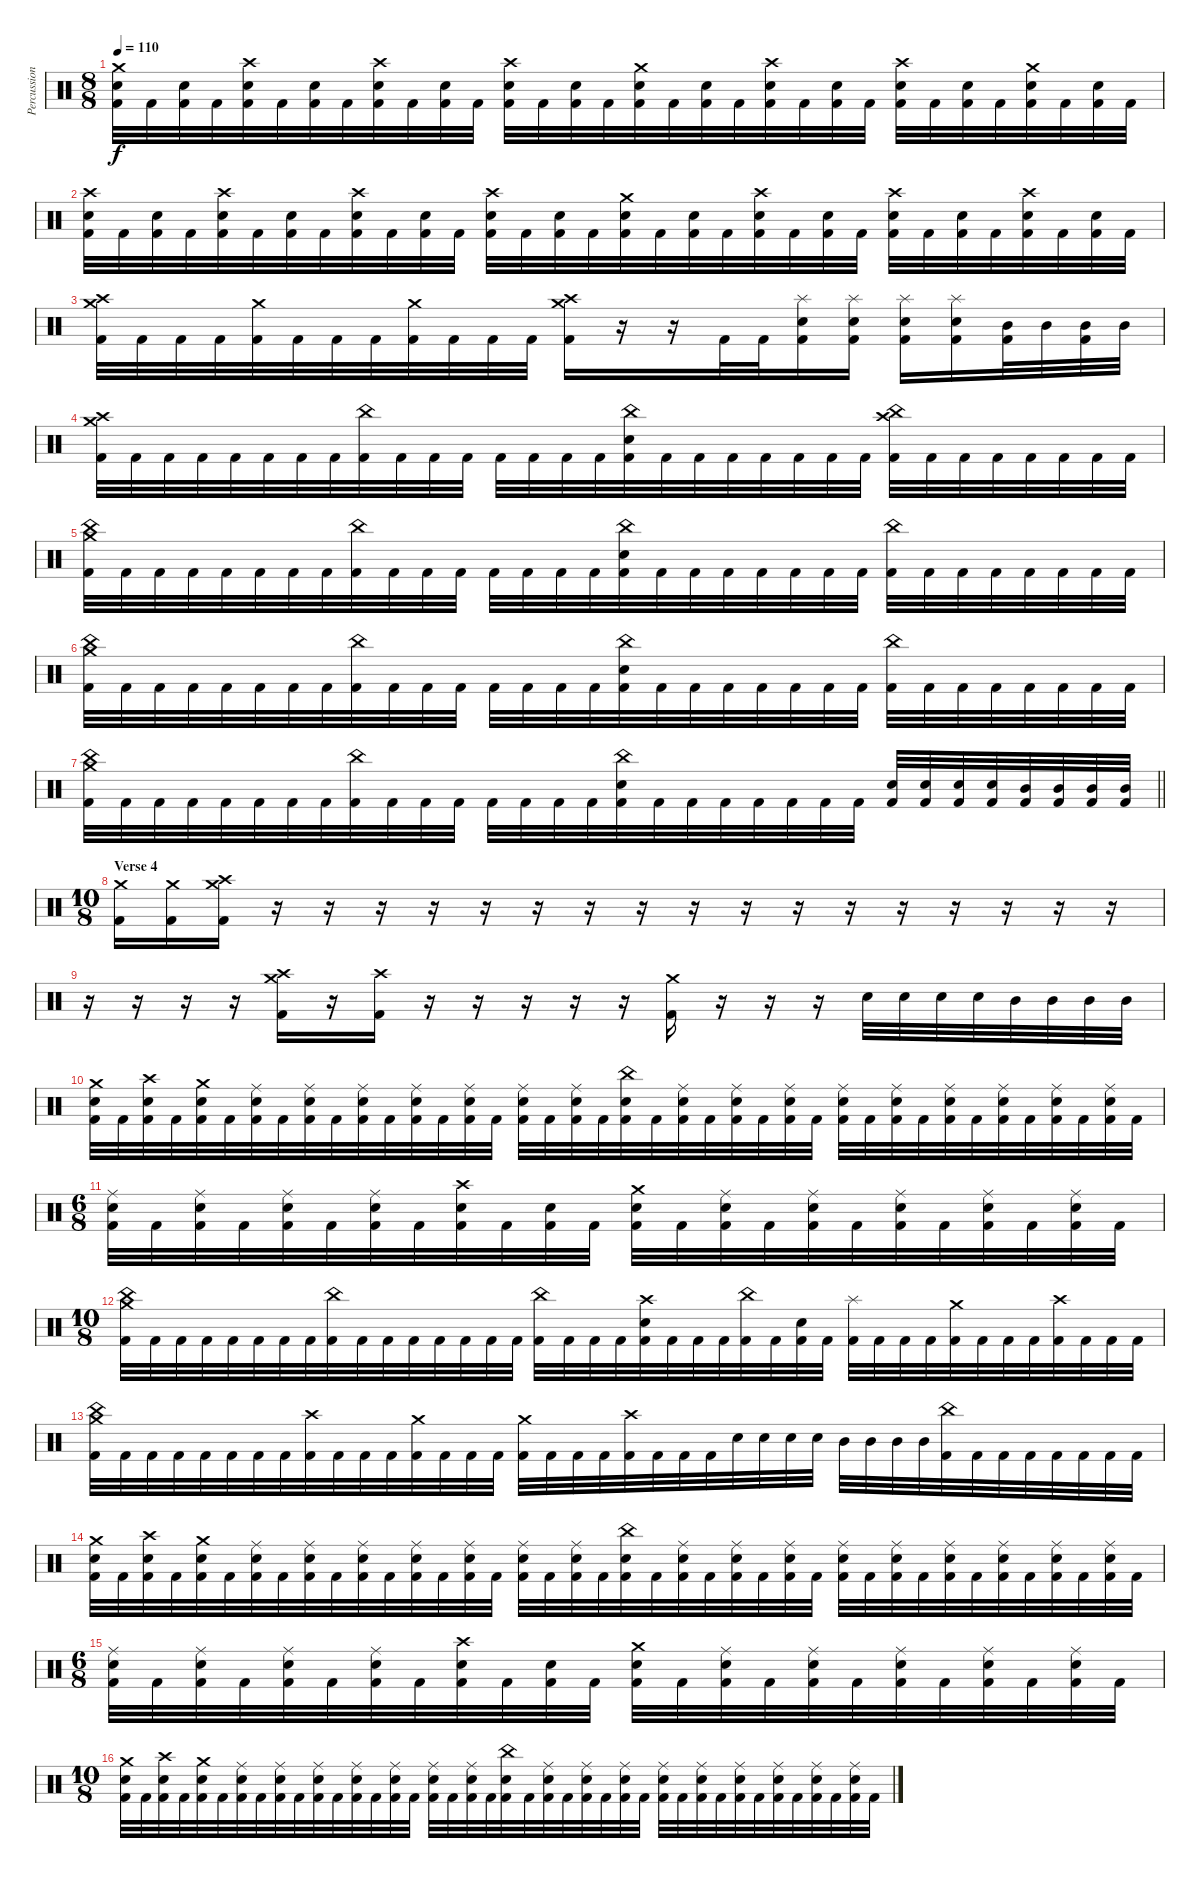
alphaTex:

\track ("Percussion" "Percussion") {instrument percussion}
\staff {score}
\articulation defaults
\ts (8 8)
\tempo 110
\clef neutral
\ks c
("Crash medium (hit)" "Snare (hit) 2" "Kick (hit) 2").32{dy f} "Kick (hit) 2".32 ("Snare (hit) 2" "Kick (hit) 2").32 "Kick (hit) 2".32 ("Crash high (hit)" "Snare (hit) 2" "Kick (hit) 2").32 "Kick (hit) 2".32 ("Snare (hit) 2" "Kick (hit) 2").32 "Kick (hit) 2".32 ("Crash high (hit)" "Snare (hit) 2" "Kick (hit) 2").32 "Kick (hit) 2".32 ("Snare (hit) 2" "Kick (hit) 2").32 "Kick (hit) 2".32 ("Crash high (hit)" "Snare (hit) 2" "Kick (hit) 2").32 "Kick (hit) 2".32 ("Snare (hit) 2" "Kick (hit) 2").32 "Kick (hit) 2".32 ("Crash medium (hit)" "Snare (hit) 2" "Kick (hit) 2").32 "Kick (hit) 2".32 ("Snare (hit) 2" "Kick (hit) 2").32 "Kick (hit) 2".32 ("Crash high (hit)" "Snare (hit) 2" "Kick (hit) 2").32 "Kick (hit) 2".32 ("Snare (hit) 2" "Kick (hit) 2").32 "Kick (hit) 2".32 ("Crash high (hit)" "Snare (hit) 2" "Kick (hit) 2").32 "Kick (hit) 2".32 ("Snare (hit) 2" "Kick (hit) 2").32 "Kick (hit) 2".32 ("Crash medium (hit)" "Snare (hit) 2" "Kick (hit) 2").32 "Kick (hit) 2".32 ("Snare (hit) 2" "Kick (hit) 2").32 "Kick (hit) 2".32 |
("Crash high (hit)" "Snare (hit) 2" "Kick (hit) 2").32 "Kick (hit) 2".32 ("Snare (hit) 2" "Kick (hit) 2").32 "Kick (hit) 2".32 ("Crash high (hit)" "Snare (hit) 2" "Kick (hit) 2").32 "Kick (hit) 2".32 ("Snare (hit) 2" "Kick (hit) 2").32 "Kick (hit) 2".32 ("Crash high (hit)" "Snare (hit) 2" "Kick (hit) 2").32 "Kick (hit) 2".32 ("Snare (hit) 2" "Kick (hit) 2").32 "Kick (hit) 2".32 ("Crash high (hit)" "Snare (hit) 2" "Kick (hit) 2").32 "Kick (hit) 2".32 ("Snare (hit) 2" "Kick (hit) 2").32 "Kick (hit) 2".32 ("Crash medium (hit)" "Snare (hit) 2" "Kick (hit) 2").32 "Kick (hit) 2".32 ("Snare (hit) 2" "Kick (hit) 2").32 "Kick (hit) 2".32 ("Crash high (hit)" "Snare (hit) 2" "Kick (hit) 2").32 "Kick (hit) 2".32 ("Snare (hit) 2" "Kick (hit) 2").32 "Kick (hit) 2".32 ("Crash high (hit)" "Snare (hit) 2" "Kick (hit) 2").32 "Kick (hit) 2".32 ("Snare (hit) 2" "Kick (hit) 2").32 "Kick (hit) 2".32 ("Crash high (hit)" "Snare (hit) 2" "Kick (hit) 2").32 "Kick (hit) 2".32 ("Snare (hit) 2" "Kick (hit) 2").32 "Kick (hit) 2".32 |
("Crash medium (hit)" "Crash high (hit)" "Kick (hit) 2").32 "Kick (hit) 2".32 "Kick (hit) 2".32 "Kick (hit) 2".32 ("Crash medium (hit)" "Kick (hit) 2").32 "Kick (hit) 2".32 "Kick (hit) 2".32 "Kick (hit) 2".32 ("Crash medium (hit)" "Kick (hit) 2").32 "Kick (hit) 2".32 "Kick (hit) 2".32 "Kick (hit) 2".32 ("Crash medium (hit)" "Crash high (hit)" "Kick (hit) 2").16 r.16{volume 0} r.16 "Kick (hit) 2".32{volume 14} "Kick (hit) 2".32 ("Splash (hit)" "Snare (hit) 2" "Kick (hit) 2").16 ("Splash (hit)" "Snare (hit) 2" "Kick (hit) 2").16 ("Splash (hit)" "Snare (hit) 2" "Kick (hit) 2").16 ("Splash (hit)" "Snare (hit) 2" "Kick (hit) 2").16 ("Mid Tom (hit)" "Kick (hit) 2").32 "Mid Tom (hit)".32 ("Mid Tom (hit)" "Kick (hit) 2").32 "Mid Tom (hit)".32 |
("Crash medium (hit)" "Crash high (hit)" "Kick (hit) 2").32 "Kick (hit) 2".32 "Kick (hit) 2".32 "Kick (hit) 2".32 "Kick (hit) 2".32 "Kick (hit) 2".32 "Kick (hit) 2".32 "Kick (hit) 2".32 ("China (hit)" "Kick (hit) 2").32 "Kick (hit) 2".32 "Kick (hit) 2".32 "Kick (hit) 2".32 "Kick (hit) 2".32 "Kick (hit) 2".32 "Kick (hit) 2".32 "Kick (hit) 2".32 ("China (hit)" "Snare (hit) 2" "Kick (hit) 2").32 "Kick (hit) 2".32 "Kick (hit) 2".32 "Kick (hit) 2".32 "Kick (hit) 2".32 "Kick (hit) 2".32 "Kick (hit) 2".32 "Kick (hit) 2".32 ("Crash high (hit)" "China (hit)" "Kick (hit) 2").32 "Kick (hit) 2".32 "Kick (hit) 2".32 "Kick (hit) 2".32 "Kick (hit) 2".32 "Kick (hit) 2".32 "Kick (hit) 2".32 "Kick (hit) 2".32 |
("Crash medium (hit)" "China (hit)" "Kick (hit) 2").32 "Kick (hit) 2".32 "Kick (hit) 2".32 "Kick (hit) 2".32 "Kick (hit) 2".32 "Kick (hit) 2".32 "Kick (hit) 2".32 "Kick (hit) 2".32 ("China (hit)" "Kick (hit) 2").32 "Kick (hit) 2".32 "Kick (hit) 2".32 "Kick (hit) 2".32 "Kick (hit) 2".32 "Kick (hit) 2".32 "Kick (hit) 2".32 "Kick (hit) 2".32 ("China (hit)" "Snare (hit) 2" "Kick (hit) 2").32 "Kick (hit) 2".32 "Kick (hit) 2".32 "Kick (hit) 2".32 "Kick (hit) 2".32 "Kick (hit) 2".32 "Kick (hit) 2".32 "Kick (hit) 2".32 ("China (hit)" "Kick (hit) 2").32 "Kick (hit) 2".32 "Kick (hit) 2".32 "Kick (hit) 2".32 "Kick (hit) 2".32 "Kick (hit) 2".32 "Kick (hit) 2".32 "Kick (hit) 2".32 |
("Crash medium (hit)" "China (hit)" "Kick (hit) 2").32 "Kick (hit) 2".32 "Kick (hit) 2".32 "Kick (hit) 2".32 "Kick (hit) 2".32 "Kick (hit) 2".32 "Kick (hit) 2".32 "Kick (hit) 2".32 ("China (hit)" "Kick (hit) 2").32 "Kick (hit) 2".32 "Kick (hit) 2".32 "Kick (hit) 2".32 "Kick (hit) 2".32 "Kick (hit) 2".32 "Kick (hit) 2".32 "Kick (hit) 2".32 ("China (hit)" "Snare (hit) 2" "Kick (hit) 2").32 "Kick (hit) 2".32 "Kick (hit) 2".32 "Kick (hit) 2".32 "Kick (hit) 2".32 "Kick (hit) 2".32 "Kick (hit) 2".32 "Kick (hit) 2".32 ("China (hit)" "Kick (hit) 2").32 "Kick (hit) 2".32 "Kick (hit) 2".32 "Kick (hit) 2".32 "Kick (hit) 2".32 "Kick (hit) 2".32 "Kick (hit) 2".32 "Kick (hit) 2".32 |
\barLineRight lightlight
("Crash medium (hit)" "China (hit)" "Kick (hit) 2").32 "Kick (hit) 2".32 "Kick (hit) 2".32 "Kick (hit) 2".32 "Kick (hit) 2".32 "Kick (hit) 2".32 "Kick (hit) 2".32 "Kick (hit) 2".32 ("China (hit)" "Kick (hit) 2").32 "Kick (hit) 2".32 "Kick (hit) 2".32 "Kick (hit) 2".32 "Kick (hit) 2".32 "Kick (hit) 2".32 "Kick (hit) 2".32 "Kick (hit) 2".32 ("China (hit)" "Snare (hit) 2" "Kick (hit) 2").32 "Kick (hit) 2".32 "Kick (hit) 2".32 "Kick (hit) 2".32 "Kick (hit) 2".32 "Kick (hit) 2".32 "Kick (hit) 2".32 "Kick (hit) 2".32 ("Snare (hit) 2" "Kick (hit) 2").32 ("Snare (hit) 2" "Kick (hit) 2").32 ("Snare (hit) 2" "Kick (hit) 2").32 ("Snare (hit) 2" "Kick (hit) 2").32 ("Mid Tom (hit)" "Kick (hit) 2").32 ("Mid Tom (hit)" "Kick (hit) 2").32 ("Mid Tom (hit)" "Kick (hit) 2").32 ("Mid Tom (hit)" "Kick (hit) 2").32 |
\ts (10 8)
\section ("" "Verse 4")
("Crash medium (hit)" "Kick (hit) 2").16 ("Crash medium (hit)" "Kick (hit) 2").16 ("Crash high (hit)" "Crash medium (hit)" "Kick (hit) 2").16 r.16 r.16{volume 0} r.16 r.16 r.16 r.16 r.16 r.16 r.16 r.16 r.16 r.16 r.16 r.16 r.16 r.16 r.16 |
r.16{volume 13} r.16 r.16 r.16 ("Crash high (hit)" "Crash medium (hit)" "Kick (hit) 2").16 r.16 ("Crash high (hit)" "Kick (hit) 2").16 r.16 r.16{volume 0} r.16 r.16 r.16 ("Crash medium (hit)" "Kick (hit) 2").16{volume 13} r.16 r.16 r.16 "Snare (hit) 2".32 "Snare (hit) 2".32 "Snare (hit) 2".32 "Snare (hit) 2".32 "Mid Tom (hit)".32 "Mid Tom (hit)".32 "Mid Tom (hit)".32 "Mid Tom (hit)".32 |
("Crash medium (hit)" "Snare (hit) 2" "Kick (hit) 2").32 "Kick (hit) 2".32 ("Crash high (hit)" "Snare (hit) 2" "Kick (hit) 2").32 "Kick (hit) 2".32 ("Crash medium (hit)" "Snare (hit) 2" "Kick (hit) 2").32 "Kick (hit) 2".32 ("Ride (middle)" "Snare (hit) 2" "Kick (hit) 2").32 "Kick (hit) 2".32 ("Ride (middle)" "Snare (hit) 2" "Kick (hit) 2").32 "Kick (hit) 2".32 ("Ride (middle)" "Snare (hit) 2" "Kick (hit) 2").32 "Kick (hit) 2".32 ("Ride (middle)" "Snare (hit) 2" "Kick (hit) 2").32 "Kick (hit) 2".32 ("Ride (middle)" "Snare (hit) 2" "Kick (hit) 2").32 "Kick (hit) 2".32 ("Ride (middle)" "Snare (hit) 2" "Kick (hit) 2").32 "Kick (hit) 2".32 ("Ride (middle)" "Snare (hit) 2" "Kick (hit) 2").32 "Kick (hit) 2".32 ("China (hit)" "Snare (hit) 2" "Kick (hit) 2").32 "Kick (hit) 2".32 ("Ride (middle)" "Snare (hit) 2" "Kick (hit) 2").32 "Kick (hit) 2".32 ("Ride (middle)" "Snare (hit) 2" "Kick (hit) 2").32 "Kick (hit) 2".32 ("Ride (middle)" "Snare (hit) 2" "Kick (hit) 2").32 "Kick (hit) 2".32 ("Ride (middle)" "Snare (hit) 2" "Kick (hit) 2").32 "Kick (hit) 2".32 ("Ride (middle)" "Snare (hit) 2" "Kick (hit) 2").32 "Kick (hit) 2".32 ("Ride (middle)" "Snare (hit) 2" "Kick (hit) 2").32 "Kick (hit) 2".32 ("Ride (middle)" "Snare (hit) 2" "Kick (hit) 2").32 "Kick (hit) 2".32 ("Ride (middle)" "Snare (hit) 2" "Kick (hit) 2").32 "Kick (hit) 2".32 ("Ride (middle)" "Snare (hit) 2" "Kick (hit) 2").32 "Kick (hit) 2".32 |
\ts (6 8)
("Ride (middle)" "Snare (hit) 2" "Kick (hit) 2").32 "Kick (hit) 2".32 ("Ride (middle)" "Snare (hit) 2" "Kick (hit) 2").32 "Kick (hit) 2".32 ("Ride (middle)" "Snare (hit) 2" "Kick (hit) 2").32 "Kick (hit) 2".32 ("Ride (middle)" "Snare (hit) 2" "Kick (hit) 2").32 "Kick (hit) 2".32 ("Crash high (hit)" "Snare (hit) 2" "Kick (hit) 2").32 "Kick (hit) 2".32 ("Snare (hit) 2" "Kick (hit) 2").32 "Kick (hit) 2".32 ("Crash medium (hit)" "Snare (hit) 2" "Kick (hit) 2").32 "Kick (hit) 2".32 ("Ride (middle)" "Snare (hit) 2" "Kick (hit) 2").32 "Kick (hit) 2".32 ("Ride (middle)" "Snare (hit) 2" "Kick (hit) 2").32 "Kick (hit) 2".32 ("Ride (middle)" "Snare (hit) 2" "Kick (hit) 2").32 "Kick (hit) 2".32 ("Ride (middle)" "Snare (hit) 2" "Kick (hit) 2").32 "Kick (hit) 2".32 ("Ride (middle)" "Snare (hit) 2" "Kick (hit) 2").32 "Kick (hit) 2".32 |
\ts (10 8)
("Crash medium (hit)" "China (hit)" "Kick (hit) 2").32 "Kick (hit) 2".32 "Kick (hit) 2".32 "Kick (hit) 2".32 "Kick (hit) 2".32 "Kick (hit) 2".32 "Kick (hit) 2".32 "Kick (hit) 2".32 ("China (hit)" "Kick (hit) 2").32 "Kick (hit) 2".32 "Kick (hit) 2".32 "Kick (hit) 2".32 "Kick (hit) 2".32 "Kick (hit) 2".32 "Kick (hit) 2".32 "Kick (hit) 2".32 ("China (hit)" "Kick (hit) 2").32 "Kick (hit) 2".32 "Kick (hit) 2".32 "Kick (hit) 2".32 ("Crash high (hit)" "Snare (hit) 2" "Kick (hit) 2").32 "Kick (hit) 2".32 "Kick (hit) 2".32 "Kick (hit) 2".32 ("China (hit)" "Kick (hit) 2").32 "Kick (hit) 2".32 ("Snare (hit) 2" "Kick (hit) 2").32 "Kick (hit) 2".32 ("Splash (hit)" "Kick (hit) 2").32 "Kick (hit) 2".32 "Kick (hit) 2".32 "Kick (hit) 2".32 ("Crash medium (hit)" "Kick (hit) 2").32 "Kick (hit) 2".32 "Kick (hit) 2".32 "Kick (hit) 2".32 ("Crash high (hit)" "Kick (hit) 2").32 "Kick (hit) 2".32 "Kick (hit) 2".32 "Kick (hit) 2".32 |
("Crash medium (hit)" "China (hit)" "Kick (hit) 2").32 "Kick (hit) 2".32 "Kick (hit) 2".32 "Kick (hit) 2".32 "Kick (hit) 2".32 "Kick (hit) 2".32 "Kick (hit) 2".32 "Kick (hit) 2".32 ("Crash high (hit)" "Kick (hit) 2").32 "Kick (hit) 2".32 "Kick (hit) 2".32 "Kick (hit) 2".32 ("Crash medium (hit)" "Kick (hit) 2").32 "Kick (hit) 2".32 "Kick (hit) 2".32 "Kick (hit) 2".32 ("Crash medium (hit)" "Kick (hit) 2").32 "Kick (hit) 2".32 "Kick (hit) 2".32 "Kick (hit) 2".32 ("Crash high (hit)" "Kick (hit) 2").32 "Kick (hit) 2".32 "Kick (hit) 2".32 "Kick (hit) 2".32 "Snare (hit) 2".32 "Snare (hit) 2".32 "Snare (hit) 2".32 "Snare (hit) 2".32 "Mid Tom (hit)".32 "Mid Tom (hit)".32 "Mid Tom (hit)".32 "Mid Tom (hit)".32 ("China (hit)" "Kick (hit) 2").32 "Kick (hit) 2".32 "Kick (hit) 2".32 "Kick (hit) 2".32 "Kick (hit) 2".32 "Kick (hit) 2".32 "Kick (hit) 2".32 "Kick (hit) 2".32 |
("Crash medium (hit)" "Snare (hit) 2" "Kick (hit) 2").32 "Kick (hit) 2".32 ("Crash high (hit)" "Snare (hit) 2" "Kick (hit) 2").32 "Kick (hit) 2".32 ("Crash medium (hit)" "Snare (hit) 2" "Kick (hit) 2").32 "Kick (hit) 2".32 ("Ride (middle)" "Snare (hit) 2" "Kick (hit) 2").32 "Kick (hit) 2".32 ("Ride (middle)" "Snare (hit) 2" "Kick (hit) 2").32 "Kick (hit) 2".32 ("Ride (middle)" "Snare (hit) 2" "Kick (hit) 2").32 "Kick (hit) 2".32 ("Ride (middle)" "Snare (hit) 2" "Kick (hit) 2").32 "Kick (hit) 2".32 ("Ride (middle)" "Snare (hit) 2" "Kick (hit) 2").32 "Kick (hit) 2".32 ("Ride (middle)" "Snare (hit) 2" "Kick (hit) 2").32 "Kick (hit) 2".32 ("Ride (middle)" "Snare (hit) 2" "Kick (hit) 2").32 "Kick (hit) 2".32 ("China (hit)" "Snare (hit) 2" "Kick (hit) 2").32 "Kick (hit) 2".32 ("Ride (middle)" "Snare (hit) 2" "Kick (hit) 2").32 "Kick (hit) 2".32 ("Ride (middle)" "Snare (hit) 2" "Kick (hit) 2").32 "Kick (hit) 2".32 ("Ride (middle)" "Snare (hit) 2" "Kick (hit) 2").32 "Kick (hit) 2".32 ("Ride (middle)" "Snare (hit) 2" "Kick (hit) 2").32 "Kick (hit) 2".32 ("Ride (middle)" "Snare (hit) 2" "Kick (hit) 2").32 "Kick (hit) 2".32 ("Ride (middle)" "Snare (hit) 2" "Kick (hit) 2").32 "Kick (hit) 2".32 ("Ride (middle)" "Snare (hit) 2" "Kick (hit) 2").32 "Kick (hit) 2".32 ("Ride (middle)" "Snare (hit) 2" "Kick (hit) 2").32 "Kick (hit) 2".32 ("Ride (middle)" "Snare (hit) 2" "Kick (hit) 2").32 "Kick (hit) 2".32 |
\ts (6 8)
("Ride (middle)" "Snare (hit) 2" "Kick (hit) 2").32 "Kick (hit) 2".32 ("Ride (middle)" "Snare (hit) 2" "Kick (hit) 2").32 "Kick (hit) 2".32 ("Ride (middle)" "Snare (hit) 2" "Kick (hit) 2").32 "Kick (hit) 2".32 ("Ride (middle)" "Snare (hit) 2" "Kick (hit) 2").32 "Kick (hit) 2".32 ("Crash high (hit)" "Snare (hit) 2" "Kick (hit) 2").32 "Kick (hit) 2".32 ("Snare (hit) 2" "Kick (hit) 2").32 "Kick (hit) 2".32 ("Crash medium (hit)" "Snare (hit) 2" "Kick (hit) 2").32 "Kick (hit) 2".32 ("Ride (middle)" "Snare (hit) 2" "Kick (hit) 2").32 "Kick (hit) 2".32 ("Ride (middle)" "Snare (hit) 2" "Kick (hit) 2").32 "Kick (hit) 2".32 ("Ride (middle)" "Snare (hit) 2" "Kick (hit) 2").32 "Kick (hit) 2".32 ("Ride (middle)" "Snare (hit) 2" "Kick (hit) 2").32 "Kick (hit) 2".32 ("Ride (middle)" "Snare (hit) 2" "Kick (hit) 2").32 "Kick (hit) 2".32 |
\ts (10 8)
("Crash medium (hit)" "Snare (hit) 2" "Kick (hit) 2").32 "Kick (hit) 2".32 ("Crash high (hit)" "Snare (hit) 2" "Kick (hit) 2").32 "Kick (hit) 2".32 ("Crash medium (hit)" "Snare (hit) 2" "Kick (hit) 2").32 "Kick (hit) 2".32 ("Ride (middle)" "Snare (hit) 2" "Kick (hit) 2").32 "Kick (hit) 2".32 ("Ride (middle)" "Snare (hit) 2" "Kick (hit) 2").32 "Kick (hit) 2".32 ("Ride (middle)" "Snare (hit) 2" "Kick (hit) 2").32 "Kick (hit) 2".32 ("Ride (middle)" "Snare (hit) 2" "Kick (hit) 2").32 "Kick (hit) 2".32 ("Ride (middle)" "Snare (hit) 2" "Kick (hit) 2").32 "Kick (hit) 2".32 ("Ride (middle)" "Snare (hit) 2" "Kick (hit) 2").32 "Kick (hit) 2".32 ("Ride (middle)" "Snare (hit) 2" "Kick (hit) 2").32 "Kick (hit) 2".32 ("China (hit)" "Snare (hit) 2" "Kick (hit) 2").32 "Kick (hit) 2".32 ("Ride (middle)" "Snare (hit) 2" "Kick (hit) 2").32 "Kick (hit) 2".32 ("Ride (middle)" "Snare (hit) 2" "Kick (hit) 2").32 "Kick (hit) 2".32 ("Ride (middle)" "Snare (hit) 2" "Kick (hit) 2").32 "Kick (hit) 2".32 ("Ride (middle)" "Snare (hit) 2" "Kick (hit) 2").32 "Kick (hit) 2".32 ("Ride (middle)" "Snare (hit) 2" "Kick (hit) 2").32 "Kick (hit) 2".32 ("Ride (middle)" "Snare (hit) 2" "Kick (hit) 2").32 "Kick (hit) 2".32 ("Ride (middle)" "Snare (hit) 2" "Kick (hit) 2").32 "Kick (hit) 2".32 ("Ride (middle)" "Snare (hit) 2" "Kick (hit) 2").32 "Kick (hit) 2".32 ("Ride (middle)" "Snare (hit) 2" "Kick (hit) 2").32 "Kick (hit) 2".32
